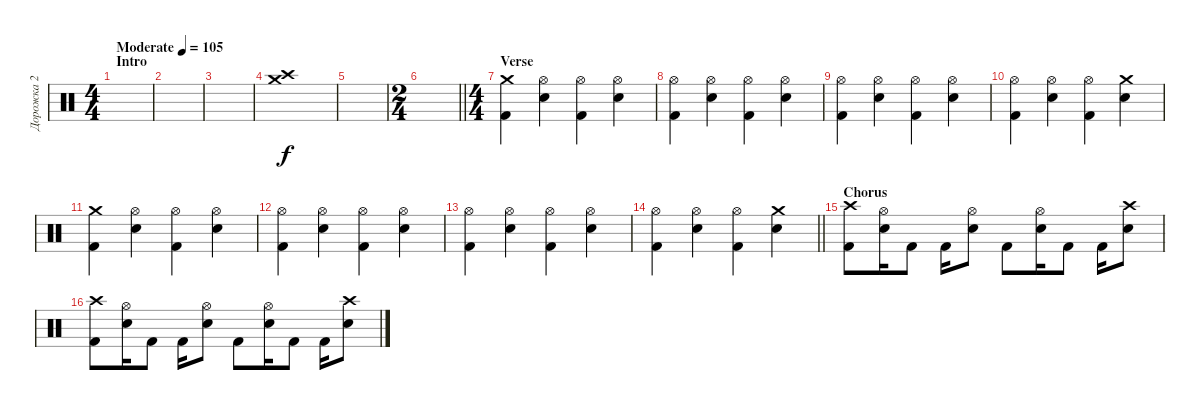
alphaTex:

\track ("Дорожка 2" "Дорожка 2") {instrument percussion}
\staff {score}
\articulation defaults
\ts (4 4)
\section ("" "Intro")
\tempo (105 "Moderate")
\clef neutral
\ks c
|
|
|
("Crash high (hit)" "Crash medium (hit)").1 |
|
\ts (2 4)
\barLineRight lightlight
|
\ts (4 4)
\section ("" "Verse")
("Crash medium (hit)" "Kick (hit) 2").4 ("Snare (hit) 2" "Hi-Hat (open)").4 ("Hi-Hat (open)" "Kick (hit) 2").4 ("Snare (hit) 2" "Hi-Hat (open)").4 |
("Hi-Hat (open)" "Kick (hit) 2").4 ("Snare (hit) 2" "Hi-Hat (open)").4 ("Hi-Hat (open)" "Kick (hit) 2").4 ("Snare (hit) 2" "Hi-Hat (open)").4 |
("Hi-Hat (open)" "Kick (hit) 2").4 ("Snare (hit) 2" "Hi-Hat (open)").4 ("Hi-Hat (open)" "Kick (hit) 2").4 ("Snare (hit) 2" "Hi-Hat (open)").4 |
("Hi-Hat (open)" "Kick (hit) 2").4 ("Snare (hit) 2" "Hi-Hat (open)").4 ("Hi-Hat (open)" "Kick (hit) 2").4 ("Snare (hit) 2" "Crash medium (hit)").4 |
("Crash medium (hit)" "Kick (hit) 2").4 ("Snare (hit) 2" "Hi-Hat (open)").4 ("Hi-Hat (open)" "Kick (hit) 2").4 ("Snare (hit) 2" "Hi-Hat (open)").4 |
("Hi-Hat (open)" "Kick (hit) 2").4 ("Snare (hit) 2" "Hi-Hat (open)").4 ("Hi-Hat (open)" "Kick (hit) 2").4 ("Snare (hit) 2" "Hi-Hat (open)").4 |
("Hi-Hat (open)" "Kick (hit) 2").4 ("Snare (hit) 2" "Hi-Hat (open)").4 ("Hi-Hat (open)" "Kick (hit) 2").4 ("Snare (hit) 2" "Hi-Hat (open)").4 |
\barLineRight lightlight
("Hi-Hat (open)" "Kick (hit) 2").4 ("Snare (hit) 2" "Hi-Hat (open)").4 ("Hi-Hat (open)" "Kick (hit) 2").4 ("Snare (hit) 2" "Crash medium (hit)").4 |
\section ("" "Chorus")
("Kick (hit) 2" "Crash high (hit)").8 ("Snare (hit) 2" "Hi-Hat (open)").16 "Kick (hit) 2".8 "Kick (hit) 2".16 ("Snare (hit) 2" "Hi-Hat (open)").8 "Kick (hit) 2".8 ("Snare (hit) 2" "Hi-Hat (open)").16 "Kick (hit) 2".8 "Kick (hit) 2".16 ("Snare (hit) 2" "Crash high (hit)").8 |
("Kick (hit) 2" "Crash high (hit)").8 ("Snare (hit) 2" "Hi-Hat (open)").16 "Kick (hit) 2".8 "Kick (hit) 2".16 ("Snare (hit) 2" "Hi-Hat (open)").8 "Kick (hit) 2".8 ("Snare (hit) 2" "Hi-Hat (open)").16 "Kick (hit) 2".8 "Kick (hit) 2".16 ("Snare (hit) 2" "Crash high (hit)").8
